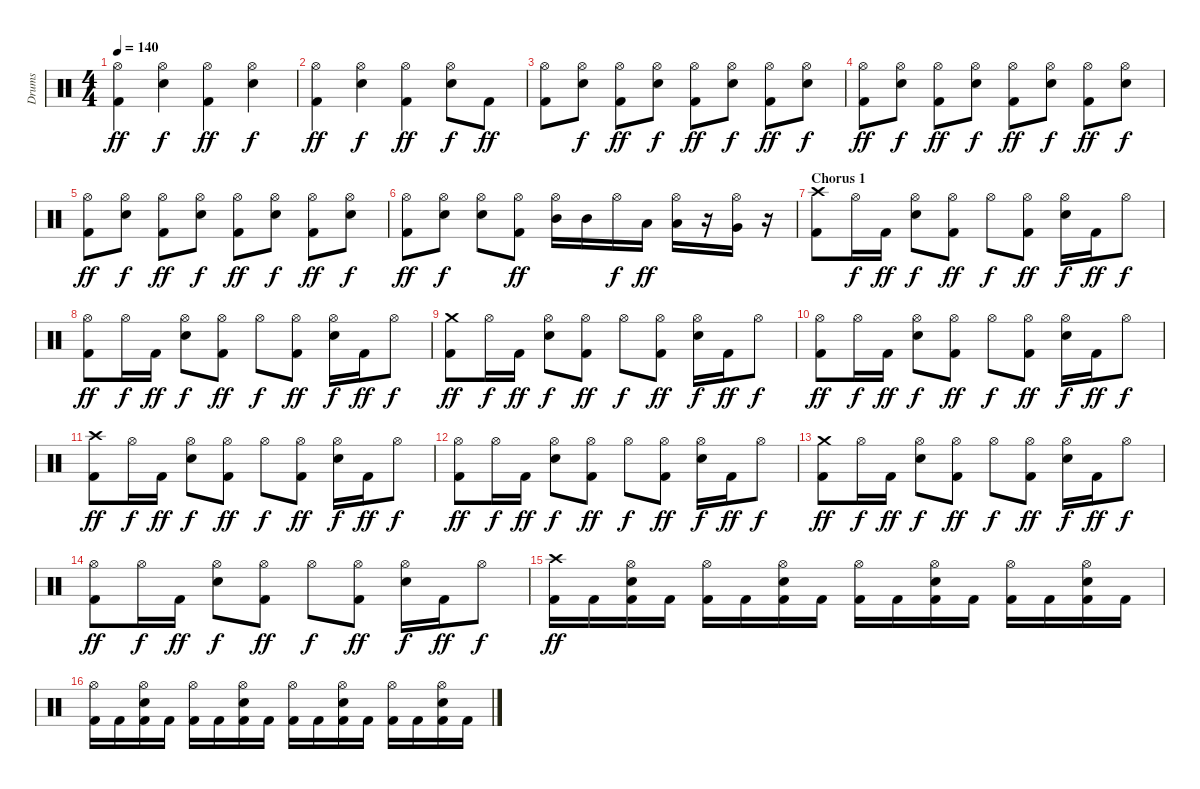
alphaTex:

\track ("Drums" "Drums") {instrument percussion}
\staff {score}
\articulation defaults
\ts (4 4)
\tempo 140
\clef neutral
\ks c
("Hi-Hat (open)" "Kick (hit) 2").4{dy ff} ("Hi-Hat (open)" "Electric Snare (hit)").4{dy f} ("Hi-Hat (open)" "Kick (hit) 2").4{dy ff} ("Hi-Hat (open)" "Electric Snare (hit)").4{dy f} |
("Hi-Hat (open)" "Kick (hit) 2").4{dy ff} ("Hi-Hat (open)" "Electric Snare (hit)").4{dy f} ("Hi-Hat (open)" "Kick (hit) 2").4{dy ff} ("Hi-Hat (open)" "Electric Snare (hit)").8{dy f} "Kick (hit) 2".8{dy ff} |
("Hi-Hat (open)" "Kick (hit) 2").8 ("Hi-Hat (open)" "Electric Snare (hit)").8{dy f} ("Hi-Hat (open)" "Kick (hit) 2").8{dy ff} ("Hi-Hat (open)" "Electric Snare (hit)").8{dy f} ("Hi-Hat (open)" "Kick (hit) 2").8{dy ff} ("Hi-Hat (open)" "Electric Snare (hit)").8{dy f} ("Hi-Hat (open)" "Kick (hit) 2").8{dy ff} ("Hi-Hat (open)" "Electric Snare (hit)").8{dy f} |
("Hi-Hat (open)" "Kick (hit) 2").8{dy ff} ("Hi-Hat (open)" "Electric Snare (hit)").8{dy f} ("Hi-Hat (open)" "Kick (hit) 2").8{dy ff} ("Hi-Hat (open)" "Electric Snare (hit)").8{dy f} ("Hi-Hat (open)" "Kick (hit) 2").8{dy ff} ("Hi-Hat (open)" "Electric Snare (hit)").8{dy f} ("Hi-Hat (open)" "Kick (hit) 2").8{dy ff} ("Hi-Hat (open)" "Electric Snare (hit)").8{dy f} |
("Hi-Hat (open)" "Kick (hit) 2").8{dy ff} ("Hi-Hat (open)" "Electric Snare (hit)").8{dy f} ("Hi-Hat (open)" "Kick (hit) 2").8{dy ff} ("Hi-Hat (open)" "Electric Snare (hit)").8{dy f} ("Hi-Hat (open)" "Kick (hit) 2").8{dy ff} ("Hi-Hat (open)" "Electric Snare (hit)").8{dy f} ("Hi-Hat (open)" "Kick (hit) 2").8{dy ff} ("Hi-Hat (open)" "Electric Snare (hit)").8{dy f} |
("Hi-Hat (open)" "Kick (hit) 2").8{dy ff} ("Hi-Hat (open)" "Electric Snare (hit)").8{dy f} ("Hi-Hat (open)" "Electric Snare (hit)").8 ("Hi-Hat (open)" "Kick (hit) 2").8{dy ff} ("Hi-Hat (open)" "Mid Tom (hit)").16 "Mid Tom (hit)".16 "Hi-Hat (open)".16{dy f} "Low Tom (hit)".16{dy ff} ("Hi-Hat (open)" "Low Tom (hit)").16 r.16 ("Hi-Hat (open)" "Very Low Tom (hit)").16 r.16 |
\section ("" "Chorus 1")
("Crash high (hit)" "Kick (hit) 2").8 "Hi-Hat (open)".16{dy f} "Kick (hit) 2".16{dy ff} ("Hi-Hat (open)" "Electric Snare (hit)").8{dy f} ("Hi-Hat (open)" "Kick (hit) 2").8{dy ff} "Hi-Hat (open)".8{dy f} ("Hi-Hat (open)" "Kick (hit) 2").8{dy ff} ("Hi-Hat (open)" "Electric Snare (hit)").16{dy f} "Kick (hit) 2".16{dy ff} "Hi-Hat (open)".8{dy f} |
("Hi-Hat (open)" "Kick (hit) 2").8{dy ff} "Hi-Hat (open)".16{dy f} "Kick (hit) 2".16{dy ff} ("Hi-Hat (open)" "Electric Snare (hit)").8{dy f} ("Hi-Hat (open)" "Kick (hit) 2").8{dy ff} "Hi-Hat (open)".8{dy f} ("Hi-Hat (open)" "Kick (hit) 2").8{dy ff} ("Hi-Hat (open)" "Electric Snare (hit)").16{dy f} "Kick (hit) 2".16{dy ff} "Hi-Hat (open)".8{dy f} |
("Crash medium (hit)" "Kick (hit) 2").8{dy ff} "Hi-Hat (open)".16{dy f} "Kick (hit) 2".16{dy ff} ("Hi-Hat (open)" "Electric Snare (hit)").8{dy f} ("Hi-Hat (open)" "Kick (hit) 2").8{dy ff} "Hi-Hat (open)".8{dy f} ("Hi-Hat (open)" "Kick (hit) 2").8{dy ff} ("Hi-Hat (open)" "Electric Snare (hit)").16{dy f} "Kick (hit) 2".16{dy ff} "Hi-Hat (open)".8{dy f} |
("Hi-Hat (open)" "Kick (hit) 2").8{dy ff} "Hi-Hat (open)".16{dy f} "Kick (hit) 2".16{dy ff} ("Hi-Hat (open)" "Electric Snare (hit)").8{dy f} ("Hi-Hat (open)" "Kick (hit) 2").8{dy ff} "Hi-Hat (open)".8{dy f} ("Hi-Hat (open)" "Kick (hit) 2").8{dy ff} ("Hi-Hat (open)" "Electric Snare (hit)").16{dy f} "Kick (hit) 2".16{dy ff} "Hi-Hat (open)".8{dy f} |
("Crash high (hit)" "Kick (hit) 2").8{dy ff} "Hi-Hat (open)".16{dy f} "Kick (hit) 2".16{dy ff} ("Hi-Hat (open)" "Electric Snare (hit)").8{dy f} ("Hi-Hat (open)" "Kick (hit) 2").8{dy ff} "Hi-Hat (open)".8{dy f} ("Hi-Hat (open)" "Kick (hit) 2").8{dy ff} ("Hi-Hat (open)" "Electric Snare (hit)").16{dy f} "Kick (hit) 2".16{dy ff} "Hi-Hat (open)".8{dy f} |
("Hi-Hat (open)" "Kick (hit) 2").8{dy ff} "Hi-Hat (open)".16{dy f} "Kick (hit) 2".16{dy ff} ("Hi-Hat (open)" "Electric Snare (hit)").8{dy f} ("Hi-Hat (open)" "Kick (hit) 2").8{dy ff} "Hi-Hat (open)".8{dy f} ("Hi-Hat (open)" "Kick (hit) 2").8{dy ff} ("Hi-Hat (open)" "Electric Snare (hit)").16{dy f} "Kick (hit) 2".16{dy ff} "Hi-Hat (open)".8{dy f} |
("Crash medium (hit)" "Kick (hit) 2").8{dy ff} "Hi-Hat (open)".16{dy f} "Kick (hit) 2".16{dy ff} ("Hi-Hat (open)" "Electric Snare (hit)").8{dy f} ("Hi-Hat (open)" "Kick (hit) 2").8{dy ff} "Hi-Hat (open)".8{dy f} ("Hi-Hat (open)" "Kick (hit) 2").8{dy ff} ("Hi-Hat (open)" "Electric Snare (hit)").16{dy f} "Kick (hit) 2".16{dy ff} "Hi-Hat (open)".8{dy f} |
("Hi-Hat (open)" "Kick (hit) 2").8{dy ff} "Hi-Hat (open)".16{dy f} "Kick (hit) 2".16{dy ff} ("Hi-Hat (open)" "Electric Snare (hit)").8{dy f} ("Hi-Hat (open)" "Kick (hit) 2").8{dy ff} "Hi-Hat (open)".8{dy f} ("Hi-Hat (open)" "Kick (hit) 2").8{dy ff} ("Hi-Hat (open)" "Electric Snare (hit)").16{dy f} "Kick (hit) 2".16{dy ff} "Hi-Hat (open)".8{dy f} |
("Crash high (hit)" "Kick (hit) 2").16{dy ff} "Kick (hit) 2".16 ("Hi-Hat (open)" "Electric Snare (hit)" "Kick (hit) 2").16 "Kick (hit) 2".16 ("Hi-Hat (open)" "Kick (hit) 2").16 "Kick (hit) 2".16 ("Hi-Hat (open)" "Electric Snare (hit)" "Kick (hit) 2").16 "Kick (hit) 2".16 ("Hi-Hat (open)" "Kick (hit) 2").16 "Kick (hit) 2".16 ("Hi-Hat (open)" "Electric Snare (hit)" "Kick (hit) 2").16 "Kick (hit) 2".16 ("Hi-Hat (open)" "Kick (hit) 2").16 "Kick (hit) 2".16 ("Hi-Hat (open)" "Electric Snare (hit)" "Kick (hit) 2").16 "Kick (hit) 2".16 |
("Hi-Hat (open)" "Kick (hit) 2").16 "Kick (hit) 2".16 ("Hi-Hat (open)" "Electric Snare (hit)" "Kick (hit) 2").16 "Kick (hit) 2".16 ("Hi-Hat (open)" "Kick (hit) 2").16 "Kick (hit) 2".16 ("Hi-Hat (open)" "Electric Snare (hit)" "Kick (hit) 2").16 "Kick (hit) 2".16 ("Hi-Hat (open)" "Kick (hit) 2").16 "Kick (hit) 2".16 ("Hi-Hat (open)" "Electric Snare (hit)" "Kick (hit) 2").16 "Kick (hit) 2".16 ("Hi-Hat (open)" "Kick (hit) 2").16 "Kick (hit) 2".16 ("Hi-Hat (open)" "Electric Snare (hit)" "Kick (hit) 2").16 "Kick (hit) 2".16
